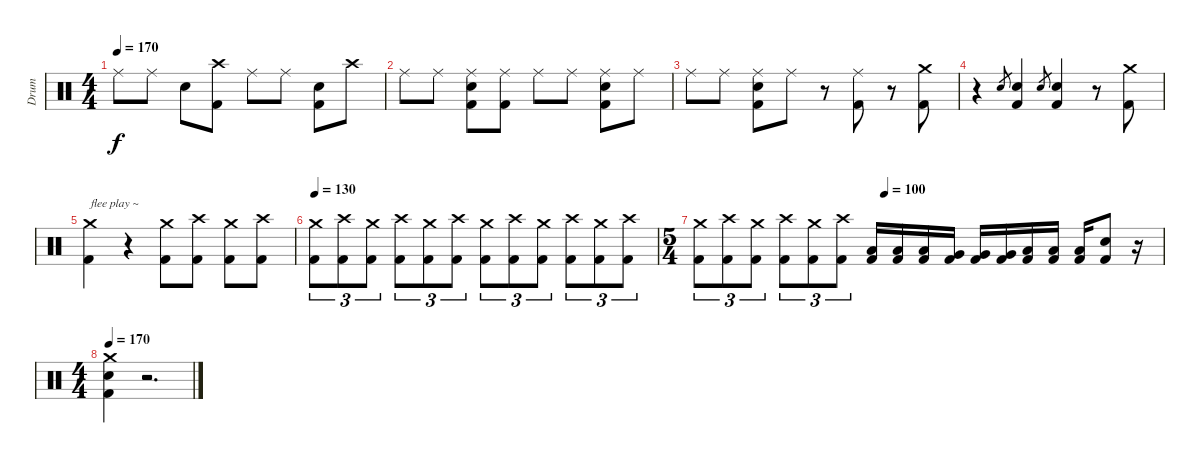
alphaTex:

\track ("Drum" "Drum") {instrument percussion}
\staff {score}
\articulation defaults
\ts (4 4)
\tempo 170
\clef neutral
\ks c "Ride (middle)".8{dy f} "Ride (middle)".8 "Electric Snare (hit)".8
("Crash high (hit)" "Kick (hit) 2").8 "Ride (middle)".8 "Ride (middle)".8 ("Electric Snare (hit)" "Kick (hit) 2").8 "Crash high (hit)".8 |
"Ride (middle)".8 "Ride (middle)".8 ("Ride (middle)" "Electric Snare (hit)" "Kick (hit) 2").8 ("Ride (middle)" "Kick (hit) 2").8 "Ride (middle)".8 "Ride (middle)".8 ("Ride (middle)" "Electric Snare (hit)" "Kick (hit) 2").8 "Ride (middle)".8 |
"Ride (middle)".8 "Ride (middle)".8 ("Ride (middle)" "Electric Snare (hit)" "Kick (hit) 2").8 "Ride (middle)".8 r.8 ("Ride (middle)" "Kick (hit) 2").8 r.8 ("Crash medium (hit)" "Kick (hit) 2").8 |
r.4 "Electric Snare (hit)".8{gr} ("Electric Snare (hit)" "Kick (hit) 2").4 "Electric Snare (hit)".8{gr} ("Electric Snare (hit)" "Kick (hit) 2").4 r.8 ("Crash medium (hit)" "Kick (hit) 2").8 |
("Crash medium (hit)" "Kick (hit) 2").4{txt "flee play ~"} r.4 ("Crash medium (hit)" "Kick (hit) 2").8 ("Crash high (hit)" "Kick (hit) 2").8 ("Crash medium (hit)" "Kick (hit) 2").8 ("Crash high (hit)" "Kick (hit) 2").8 |
\tempo 130
("Crash medium (hit)" "Kick (hit) 2").8{tu (3 2)} ("Crash high (hit)" "Kick (hit) 2").8{tu (3 2)} ("Crash medium (hit)" "Kick (hit) 2").8{tu (3 2)} ("Crash high (hit)" "Kick (hit) 2").8{tu (3 2)} ("Crash medium (hit)" "Kick (hit) 2").8{tu (3 2)} ("Crash high (hit)" "Kick (hit) 2").8{tu (3 2)} ("Crash medium (hit)" "Kick (hit) 2").8{tu (3 2)} ("Crash high (hit)" "Kick (hit) 2").8{tu (3 2)} ("Crash medium (hit)" "Kick (hit) 2").8{tu (3 2)} ("Crash high (hit)" "Kick (hit) 2").8{tu (3 2)} ("Crash medium (hit)" "Kick (hit) 2").8{tu (3 2)} ("Crash high (hit)" "Kick (hit) 2").8{tu (3 2)} |
\ts (5 4)
\tempo (100 0.4)
("Crash medium (hit)" "Kick (hit) 2").8{tu (3 2)} ("Crash high (hit)" "Kick (hit) 2").8{tu (3 2)} ("Crash medium (hit)" "Kick (hit) 2").8{tu (3 2)} ("Crash high (hit)" "Kick (hit) 2").8{tu (3 2)} ("Crash medium (hit)" "Kick (hit) 2").8{tu (3 2)} ("Crash high (hit)" "Kick (hit) 2").8{tu (3 2)} ("Low Tom (hit)" "Kick (hit) 2").16 ("Low Tom (hit)" "Kick (hit) 2").16 ("Low Tom (hit)" "Kick (hit) 2").16 ("Very Low Tom (hit)" "Kick (hit) 2").16 ("Very Low Tom (hit)" "Kick (hit) 2").16 ("Very Low Tom (hit)" "Kick (hit) 2").16 ("Low Floor Tom (hit)" "Kick (hit) 2").16 ("Low Floor Tom (hit)" "Kick (hit) 2").16 ("Low Floor Tom (hit)" "Kick (hit) 2").16 ("Electric Snare (hit)" "Kick (hit) 2").8 r.16 |
\ts (4 4)
\tempo 170
("Crash medium (hit)" "Electric Snare (hit)" "Kick (hit) 2").4 r.2{d}
